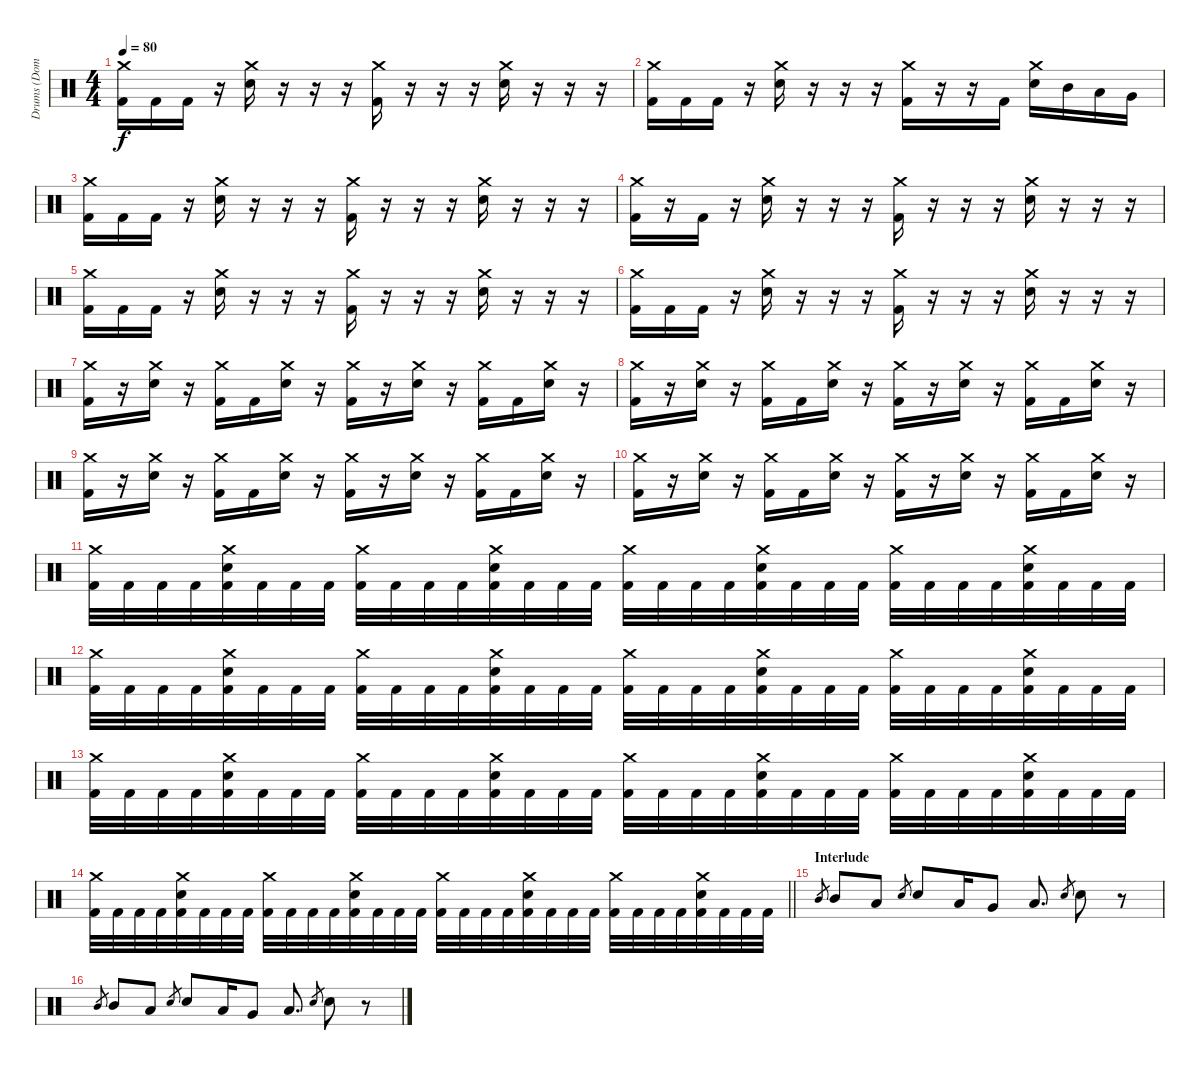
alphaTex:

\track ("Drums (Dominik)" "Drums (Dom") {instrument percussion}
\staff {score}
\articulation defaults
\ts (4 4)
\tempo 80
\clef neutral
\ks c
("Crash medium (hit)" "Kick (hit) 2").16{dy f} "Kick (hit) 2".16 "Kick (hit) 2".16 r.16 ("Crash medium (hit)" "Electric Snare (hit)").16 r.16 r.16 r.16 ("Crash medium (hit)" "Kick (hit) 2").16 r.16 r.16 r.16 ("Crash medium (hit)" "Electric Snare (hit)").16 r.16 r.16 r.16 |
("Crash medium (hit)" "Kick (hit) 2").16 "Kick (hit) 2".16 "Kick (hit) 2".16 r.16 ("Crash medium (hit)" "Electric Snare (hit)").16 r.16 r.16 r.16 ("Crash medium (hit)" "Kick (hit) 2").16 r.16 r.16 "Kick (hit) 2".16 ("Crash medium (hit)" "Electric Snare (hit)").16 "Mid Tom (hit)".16 "Low Tom (hit)".16 "Very Low Tom (hit)".16 |
("Crash medium (hit)" "Kick (hit) 2").16 "Kick (hit) 2".16 "Kick (hit) 2".16 r.16 ("Crash medium (hit)" "Electric Snare (hit)").16 r.16 r.16 r.16 ("Crash medium (hit)" "Kick (hit) 2").16 r.16 r.16 r.16 ("Crash medium (hit)" "Electric Snare (hit)").16 r.16 r.16 r.16 |
("Crash medium (hit)" "Kick (hit) 2").16 r.16 "Kick (hit) 2".16 r.16 ("Crash medium (hit)" "Electric Snare (hit)").16 r.16 r.16 r.16 ("Crash medium (hit)" "Kick (hit) 2").16 r.16 r.16 r.16 ("Crash medium (hit)" "Electric Snare (hit)").16 r.16 r.16 r.16 |
("Crash medium (hit)" "Kick (hit) 2").16 "Kick (hit) 2".16 "Kick (hit) 2".16 r.16 ("Crash medium (hit)" "Electric Snare (hit)").16 r.16 r.16 r.16 ("Crash medium (hit)" "Kick (hit) 2").16 r.16 r.16 r.16 ("Crash medium (hit)" "Electric Snare (hit)").16 r.16 r.16 r.16 |
("Crash medium (hit)" "Kick (hit) 2").16 "Kick (hit) 2".16 "Kick (hit) 2".16 r.16 ("Crash medium (hit)" "Electric Snare (hit)").16 r.16 r.16 r.16 ("Crash medium (hit)" "Kick (hit) 2").16 r.16 r.16 r.16 ("Crash medium (hit)" "Electric Snare (hit)").16 r.16 r.16 r.16 |
("Crash medium (hit)" "Kick (hit) 2").16 r.16 ("Crash medium (hit)" "Electric Snare (hit)").16 r.16 ("Crash medium (hit)" "Kick (hit) 2").16 "Kick (hit) 2".16 ("Crash medium (hit)" "Electric Snare (hit)").16 r.16 ("Crash medium (hit)" "Kick (hit) 2").16 r.16 ("Crash medium (hit)" "Electric Snare (hit)").16 r.16 ("Crash medium (hit)" "Kick (hit) 2").16 "Kick (hit) 2".16 ("Crash medium (hit)" "Electric Snare (hit)").16 r.16 |
("Crash medium (hit)" "Kick (hit) 2").16 r.16 ("Crash medium (hit)" "Electric Snare (hit)").16 r.16 ("Crash medium (hit)" "Kick (hit) 2").16 "Kick (hit) 2".16 ("Crash medium (hit)" "Electric Snare (hit)").16 r.16 ("Crash medium (hit)" "Kick (hit) 2").16 r.16 ("Crash medium (hit)" "Electric Snare (hit)").16 r.16 ("Crash medium (hit)" "Kick (hit) 2").16 "Kick (hit) 2".16 ("Crash medium (hit)" "Electric Snare (hit)").16 r.16 |
("Crash medium (hit)" "Kick (hit) 2").16 r.16 ("Crash medium (hit)" "Electric Snare (hit)").16 r.16 ("Crash medium (hit)" "Kick (hit) 2").16 "Kick (hit) 2".16 ("Crash medium (hit)" "Electric Snare (hit)").16 r.16 ("Crash medium (hit)" "Kick (hit) 2").16 r.16 ("Crash medium (hit)" "Electric Snare (hit)").16 r.16 ("Crash medium (hit)" "Kick (hit) 2").16 "Kick (hit) 2".16 ("Crash medium (hit)" "Electric Snare (hit)").16 r.16 |
("Crash medium (hit)" "Kick (hit) 2").16 r.16 ("Crash medium (hit)" "Electric Snare (hit)").16 r.16 ("Crash medium (hit)" "Kick (hit) 2").16 "Kick (hit) 2".16 ("Crash medium (hit)" "Electric Snare (hit)").16 r.16 ("Crash medium (hit)" "Kick (hit) 2").16 r.16 ("Crash medium (hit)" "Electric Snare (hit)").16 r.16 ("Crash medium (hit)" "Kick (hit) 2").16 "Kick (hit) 2".16 ("Crash medium (hit)" "Electric Snare (hit)").16 r.16 |
("Crash medium (hit)" "Kick (hit) 2").32 "Kick (hit) 2".32 "Kick (hit) 2".32 "Kick (hit) 2".32 ("Crash medium (hit)" "Electric Snare (hit)" "Kick (hit) 2").32 "Kick (hit) 2".32 "Kick (hit) 2".32 "Kick (hit) 2".32 ("Crash medium (hit)" "Kick (hit) 2").32 "Kick (hit) 2".32 "Kick (hit) 2".32 "Kick (hit) 2".32 ("Crash medium (hit)" "Electric Snare (hit)" "Kick (hit) 2").32 "Kick (hit) 2".32 "Kick (hit) 2".32 "Kick (hit) 2".32 ("Crash medium (hit)" "Kick (hit) 2").32 "Kick (hit) 2".32 "Kick (hit) 2".32 "Kick (hit) 2".32 ("Crash medium (hit)" "Electric Snare (hit)" "Kick (hit) 2").32 "Kick (hit) 2".32 "Kick (hit) 2".32 "Kick (hit) 2".32 ("Crash medium (hit)" "Kick (hit) 2").32 "Kick (hit) 2".32 "Kick (hit) 2".32 "Kick (hit) 2".32 ("Crash medium (hit)" "Electric Snare (hit)" "Kick (hit) 2").32 "Kick (hit) 2".32 "Kick (hit) 2".32 "Kick (hit) 2".32 |
("Crash medium (hit)" "Kick (hit) 2").32 "Kick (hit) 2".32 "Kick (hit) 2".32 "Kick (hit) 2".32 ("Crash medium (hit)" "Electric Snare (hit)" "Kick (hit) 2").32 "Kick (hit) 2".32 "Kick (hit) 2".32 "Kick (hit) 2".32 ("Crash medium (hit)" "Kick (hit) 2").32 "Kick (hit) 2".32 "Kick (hit) 2".32 "Kick (hit) 2".32 ("Crash medium (hit)" "Electric Snare (hit)" "Kick (hit) 2").32 "Kick (hit) 2".32 "Kick (hit) 2".32 "Kick (hit) 2".32 ("Crash medium (hit)" "Kick (hit) 2").32 "Kick (hit) 2".32 "Kick (hit) 2".32 "Kick (hit) 2".32 ("Crash medium (hit)" "Electric Snare (hit)" "Kick (hit) 2").32 "Kick (hit) 2".32 "Kick (hit) 2".32 "Kick (hit) 2".32 ("Crash medium (hit)" "Kick (hit) 2").32 "Kick (hit) 2".32 "Kick (hit) 2".32 "Kick (hit) 2".32 ("Crash medium (hit)" "Electric Snare (hit)" "Kick (hit) 2").32 "Kick (hit) 2".32 "Kick (hit) 2".32 "Kick (hit) 2".32 |
("Crash medium (hit)" "Kick (hit) 2").32 "Kick (hit) 2".32 "Kick (hit) 2".32 "Kick (hit) 2".32 ("Crash medium (hit)" "Electric Snare (hit)" "Kick (hit) 2").32 "Kick (hit) 2".32 "Kick (hit) 2".32 "Kick (hit) 2".32 ("Crash medium (hit)" "Kick (hit) 2").32 "Kick (hit) 2".32 "Kick (hit) 2".32 "Kick (hit) 2".32 ("Crash medium (hit)" "Electric Snare (hit)" "Kick (hit) 2").32 "Kick (hit) 2".32 "Kick (hit) 2".32 "Kick (hit) 2".32 ("Crash medium (hit)" "Kick (hit) 2").32 "Kick (hit) 2".32 "Kick (hit) 2".32 "Kick (hit) 2".32 ("Crash medium (hit)" "Electric Snare (hit)" "Kick (hit) 2").32 "Kick (hit) 2".32 "Kick (hit) 2".32 "Kick (hit) 2".32 ("Crash medium (hit)" "Kick (hit) 2").32 "Kick (hit) 2".32 "Kick (hit) 2".32 "Kick (hit) 2".32 ("Crash medium (hit)" "Electric Snare (hit)" "Kick (hit) 2").32 "Kick (hit) 2".32 "Kick (hit) 2".32 "Kick (hit) 2".32 |
\barLineRight lightlight
("Crash medium (hit)" "Kick (hit) 2").32 "Kick (hit) 2".32 "Kick (hit) 2".32 "Kick (hit) 2".32 ("Crash medium (hit)" "Electric Snare (hit)" "Kick (hit) 2").32 "Kick (hit) 2".32 "Kick (hit) 2".32 "Kick (hit) 2".32 ("Crash medium (hit)" "Kick (hit) 2").32 "Kick (hit) 2".32 "Kick (hit) 2".32 "Kick (hit) 2".32 ("Crash medium (hit)" "Electric Snare (hit)" "Kick (hit) 2").32 "Kick (hit) 2".32 "Kick (hit) 2".32 "Kick (hit) 2".32 ("Crash medium (hit)" "Kick (hit) 2").32 "Kick (hit) 2".32 "Kick (hit) 2".32 "Kick (hit) 2".32 ("Crash medium (hit)" "Electric Snare (hit)" "Kick (hit) 2").32 "Kick (hit) 2".32 "Kick (hit) 2".32 "Kick (hit) 2".32 ("Crash medium (hit)" "Kick (hit) 2").32 "Kick (hit) 2".32 "Kick (hit) 2".32 "Kick (hit) 2".32 ("Crash medium (hit)" "Electric Snare (hit)" "Kick (hit) 2").32 "Kick (hit) 2".32 "Kick (hit) 2".32 "Kick (hit) 2".32 |
\section ("" "Interlude")
"Mid Tom (hit)".8{gr} "Mid Tom (hit)".8 "Low Tom (hit)".8 "Electric Snare (hit)".8{gr} "Electric Snare (hit)".8 "Low Tom (hit)".16 "Very Low Tom (hit)".8 "Low Floor Tom (hit)".8{d} "Electric Snare (hit)".8{gr} "Electric Snare (hit)".8 r.8 |
"Mid Tom (hit)".8{gr} "Mid Tom (hit)".8 "Low Tom (hit)".8 "Electric Snare (hit)".8{gr} "Electric Snare (hit)".8 "Low Tom (hit)".16 "Very Low Tom (hit)".8 "Low Floor Tom (hit)".8{d} "Electric Snare (hit)".8{gr} "Electric Snare (hit)".8 r.8
